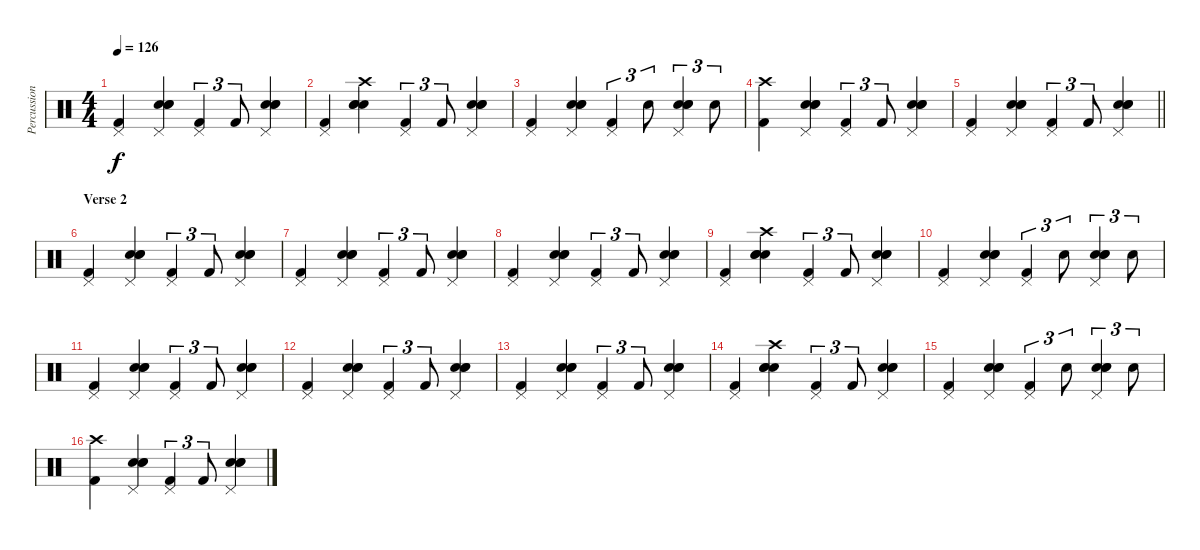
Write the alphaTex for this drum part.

\track ("Percussion" "Percussion") {instrument percussion}
\staff {score}
\articulation defaults
\ts (4 4)
\tempo 126
\clef neutral
\ks c
("Pedal Hi-Hat (hit)" "Kick (hit) 2").4{dy f} ("Pedal Hi-Hat (hit)" "Electric Snare (hit)" "Hand Clap (hit)" "Hand Clap (hit)").4 ("Pedal Hi-Hat (hit)" "Kick (hit) 2").4{tu (3 2)} "Kick (hit) 2".8{tu (3 2)} ("Pedal Hi-Hat (hit)" "Electric Snare (hit)" "Hand Clap (hit)" "Hand Clap (hit)").4 |
("Pedal Hi-Hat (hit)" "Kick (hit) 2").4 ("Crash high (hit)" "Electric Snare (hit)" "Hand Clap (hit)" "Hand Clap (hit)").4 ("Pedal Hi-Hat (hit)" "Kick (hit) 2").4{tu (3 2)} "Kick (hit) 2".8{tu (3 2)} ("Pedal Hi-Hat (hit)" "Electric Snare (hit)" "Hand Clap (hit)" "Hand Clap (hit)").4 |
("Pedal Hi-Hat (hit)" "Kick (hit) 2").4 ("Pedal Hi-Hat (hit)" "Electric Snare (hit)" "Hand Clap (hit)" "Hand Clap (hit)").4 ("Pedal Hi-Hat (hit)" "Kick (hit) 2").4{tu (3 2)} "Electric Snare (hit)".8{tu (3 2)} ("Pedal Hi-Hat (hit)" "Electric Snare (hit)" "Hand Clap (hit)" "Hand Clap (hit)").4{tu (3 2)} "Electric Snare (hit)".8{tu (3 2)} |
("Crash high (hit)" "Kick (hit) 2").4 ("Pedal Hi-Hat (hit)" "Electric Snare (hit)" "Hand Clap (hit)" "Hand Clap (hit)").4 ("Pedal Hi-Hat (hit)" "Kick (hit) 2").4{tu (3 2)} "Kick (hit) 2".8{tu (3 2)} ("Pedal Hi-Hat (hit)" "Electric Snare (hit)" "Hand Clap (hit)" "Hand Clap (hit)").4 |
\barLineRight lightlight
("Pedal Hi-Hat (hit)" "Kick (hit) 2").4 ("Pedal Hi-Hat (hit)" "Electric Snare (hit)" "Hand Clap (hit)" "Hand Clap (hit)").4 ("Pedal Hi-Hat (hit)" "Kick (hit) 2").4{tu (3 2)} "Kick (hit) 2".8{tu (3 2)} ("Pedal Hi-Hat (hit)" "Electric Snare (hit)" "Hand Clap (hit)" "Hand Clap (hit)").4 |
\section ("" "Verse 2")
("Pedal Hi-Hat (hit)" "Kick (hit) 2").4 ("Pedal Hi-Hat (hit)" "Electric Snare (hit)" "Hand Clap (hit)" "Hand Clap (hit)").4 ("Pedal Hi-Hat (hit)" "Kick (hit) 2").4{tu (3 2)} "Kick (hit) 2".8{tu (3 2)} ("Pedal Hi-Hat (hit)" "Electric Snare (hit)" "Hand Clap (hit)" "Hand Clap (hit)").4 |
("Pedal Hi-Hat (hit)" "Kick (hit) 2").4 ("Pedal Hi-Hat (hit)" "Electric Snare (hit)" "Hand Clap (hit)" "Hand Clap (hit)").4 ("Pedal Hi-Hat (hit)" "Kick (hit) 2").4{tu (3 2)} "Kick (hit) 2".8{tu (3 2)} ("Pedal Hi-Hat (hit)" "Electric Snare (hit)" "Hand Clap (hit)" "Hand Clap (hit)").4 |
("Pedal Hi-Hat (hit)" "Kick (hit) 2").4 ("Pedal Hi-Hat (hit)" "Electric Snare (hit)" "Hand Clap (hit)" "Hand Clap (hit)").4 ("Pedal Hi-Hat (hit)" "Kick (hit) 2").4{tu (3 2)} "Kick (hit) 2".8{tu (3 2)} ("Pedal Hi-Hat (hit)" "Electric Snare (hit)" "Hand Clap (hit)" "Hand Clap (hit)").4 |
("Pedal Hi-Hat (hit)" "Kick (hit) 2").4 ("Crash high (hit)" "Electric Snare (hit)" "Hand Clap (hit)" "Hand Clap (hit)").4 ("Pedal Hi-Hat (hit)" "Kick (hit) 2").4{tu (3 2)} "Kick (hit) 2".8{tu (3 2)} ("Pedal Hi-Hat (hit)" "Electric Snare (hit)" "Hand Clap (hit)" "Hand Clap (hit)").4 |
("Pedal Hi-Hat (hit)" "Kick (hit) 2").4 ("Pedal Hi-Hat (hit)" "Electric Snare (hit)" "Hand Clap (hit)" "Hand Clap (hit)").4 ("Pedal Hi-Hat (hit)" "Kick (hit) 2").4{tu (3 2)} "Electric Snare (hit)".8{tu (3 2)} ("Pedal Hi-Hat (hit)" "Electric Snare (hit)" "Hand Clap (hit)" "Hand Clap (hit)").4{tu (3 2)} "Electric Snare (hit)".8{tu (3 2)} |
("Pedal Hi-Hat (hit)" "Kick (hit) 2").4 ("Pedal Hi-Hat (hit)" "Electric Snare (hit)" "Hand Clap (hit)" "Hand Clap (hit)").4 ("Pedal Hi-Hat (hit)" "Kick (hit) 2").4{tu (3 2)} "Kick (hit) 2".8{tu (3 2)} ("Pedal Hi-Hat (hit)" "Electric Snare (hit)" "Hand Clap (hit)" "Hand Clap (hit)").4 |
("Pedal Hi-Hat (hit)" "Kick (hit) 2").4 ("Pedal Hi-Hat (hit)" "Electric Snare (hit)" "Hand Clap (hit)" "Hand Clap (hit)").4 ("Pedal Hi-Hat (hit)" "Kick (hit) 2").4{tu (3 2)} "Kick (hit) 2".8{tu (3 2)} ("Pedal Hi-Hat (hit)" "Electric Snare (hit)" "Hand Clap (hit)" "Hand Clap (hit)").4 |
("Pedal Hi-Hat (hit)" "Kick (hit) 2").4 ("Pedal Hi-Hat (hit)" "Electric Snare (hit)" "Hand Clap (hit)" "Hand Clap (hit)").4 ("Pedal Hi-Hat (hit)" "Kick (hit) 2").4{tu (3 2)} "Kick (hit) 2".8{tu (3 2)} ("Pedal Hi-Hat (hit)" "Electric Snare (hit)" "Hand Clap (hit)" "Hand Clap (hit)").4 |
("Pedal Hi-Hat (hit)" "Kick (hit) 2").4 ("Crash high (hit)" "Electric Snare (hit)" "Hand Clap (hit)" "Hand Clap (hit)").4 ("Pedal Hi-Hat (hit)" "Kick (hit) 2").4{tu (3 2)} "Kick (hit) 2".8{tu (3 2)} ("Pedal Hi-Hat (hit)" "Electric Snare (hit)" "Hand Clap (hit)" "Hand Clap (hit)").4 |
("Pedal Hi-Hat (hit)" "Kick (hit) 2").4 ("Pedal Hi-Hat (hit)" "Electric Snare (hit)" "Hand Clap (hit)" "Hand Clap (hit)").4 ("Pedal Hi-Hat (hit)" "Kick (hit) 2").4{tu (3 2)} "Electric Snare (hit)".8{tu (3 2)} ("Pedal Hi-Hat (hit)" "Electric Snare (hit)" "Hand Clap (hit)" "Hand Clap (hit)").4{tu (3 2)} "Electric Snare (hit)".8{tu (3 2)} |
("Crash high (hit)" "Kick (hit) 2").4 ("Pedal Hi-Hat (hit)" "Electric Snare (hit)" "Hand Clap (hit)" "Hand Clap (hit)").4 ("Pedal Hi-Hat (hit)" "Kick (hit) 2").4{tu (3 2)} "Kick (hit) 2".8{tu (3 2)} ("Pedal Hi-Hat (hit)" "Electric Snare (hit)" "Hand Clap (hit)" "Hand Clap (hit)").4
